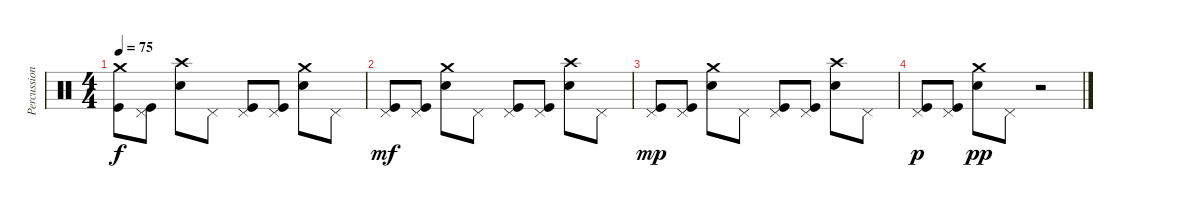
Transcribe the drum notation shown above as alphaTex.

\track ("Percussion" "Percussion") {instrument percussion}
\staff {score}
\articulation defaults
\ts (4 4)
\tempo 75
\clef neutral
\ks c
("Kick (hit)" "Crash medium (hit)").8{dy f} ("Kick (hit)" "Pedal Hi-Hat (hit)").8 ("Snare (hit) 2" "Crash high (hit)").8 "Pedal Hi-Hat (hit)".8 ("Kick (hit)" "Pedal Hi-Hat (hit)").8 ("Kick (hit)" "Pedal Hi-Hat (hit)").8 ("Snare (hit) 2" "Crash medium (hit)").8 "Pedal Hi-Hat (hit)".8 |
("Kick (hit)" "Pedal Hi-Hat (hit)").8{dy mf} ("Kick (hit)" "Pedal Hi-Hat (hit)").8 ("Snare (hit) 2" "Crash medium (hit)").8 "Pedal Hi-Hat (hit)".8 ("Kick (hit)" "Pedal Hi-Hat (hit)").8 ("Kick (hit)" "Pedal Hi-Hat (hit)").8 ("Snare (hit) 2" "Crash high (hit)").8 "Pedal Hi-Hat (hit)".8 |
("Kick (hit)" "Pedal Hi-Hat (hit)").8{dy mp} ("Kick (hit)" "Pedal Hi-Hat (hit)").8 ("Snare (hit) 2" "Crash medium (hit)").8 "Pedal Hi-Hat (hit)".8 ("Kick (hit)" "Pedal Hi-Hat (hit)").8 ("Kick (hit)" "Pedal Hi-Hat (hit)").8 ("Snare (hit) 2" "Crash high (hit)").8 "Pedal Hi-Hat (hit)".8 |
("Kick (hit)" "Pedal Hi-Hat (hit)").8{dy p} ("Kick (hit)" "Pedal Hi-Hat (hit)").8 ("Snare (hit) 2" "Crash medium (hit)").8{dy pp} "Pedal Hi-Hat (hit)".8 r.2
